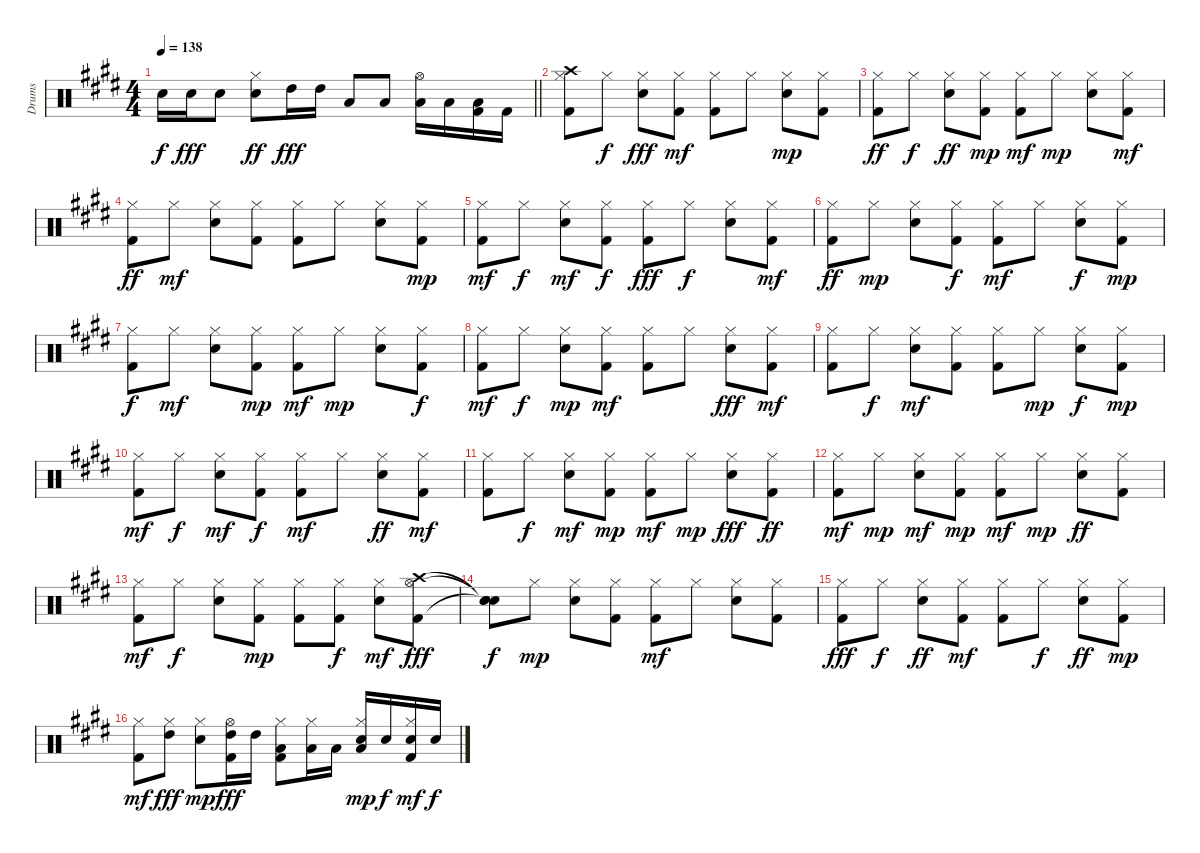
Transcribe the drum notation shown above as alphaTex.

\track ("Drums" "Drums") {instrument percussion}
\staff {score}
\articulation defaults
\ts (4 4)
\tempo 138
\clef neutral
\barLineRight lightlight
\ks e "Snare (hit) 2".16{dy f} "Snare (hit) 2".16{dy fff} "Snare (hit) 2".8
("Snare (hit) 2" "Hi-Hat (closed)").8{dy ff} "High Tom (hit)".16{dy fff} "High Tom (hit)".16 "Low Tom (hit)".8 "Low Tom (hit)".8 ("Low Floor Tom (hit)" "Hi-Hat (open)").16 "Low Tom (hit)".16 ("Kick (hit) 2" "Low Floor Tom (hit)").16 "Kick (hit) 2".16 |
("Kick (hit) 2" "Hi-Hat (closed)" "Crash high (hit)").8 "Hi-Hat (closed)".8{dy f} ("Snare (hit) 2" "Hi-Hat (closed)").8{dy fff} ("Kick (hit) 2" "Hi-Hat (closed)").8{dy mf} ("Kick (hit) 2" "Hi-Hat (closed)").8 "Hi-Hat (closed)".8 ("Snare (hit) 2" "Hi-Hat (closed)").8{dy mp} ("Kick (hit) 2" "Hi-Hat (closed)").8 |
("Kick (hit) 2" "Hi-Hat (closed)").8{dy ff} "Hi-Hat (closed)".8{dy f} ("Snare (hit) 2" "Hi-Hat (closed)").8{dy ff} ("Kick (hit) 2" "Hi-Hat (closed)").8{dy mp} ("Kick (hit) 2" "Hi-Hat (closed)").8{dy mf} "Hi-Hat (closed)".8{dy mp} ("Snare (hit) 2" "Hi-Hat (closed)").8 ("Kick (hit) 2" "Hi-Hat (closed)").8{dy mf} |
("Kick (hit) 2" "Hi-Hat (closed)").8{dy ff} "Hi-Hat (closed)".8{dy mf} ("Snare (hit) 2" "Hi-Hat (closed)").8 ("Kick (hit) 2" "Hi-Hat (closed)").8 ("Kick (hit) 2" "Hi-Hat (closed)").8 "Hi-Hat (closed)".8 ("Snare (hit) 2" "Hi-Hat (closed)").8 ("Kick (hit) 2" "Hi-Hat (closed)").8{dy mp} |
("Kick (hit) 2" "Hi-Hat (closed)").8{dy mf} "Hi-Hat (closed)".8{dy f} ("Snare (hit) 2" "Hi-Hat (closed)").8{dy mf} ("Kick (hit) 2" "Hi-Hat (closed)").8{dy f} ("Kick (hit) 2" "Hi-Hat (closed)").8{dy fff} "Hi-Hat (closed)".8{dy f} ("Snare (hit) 2" "Hi-Hat (closed)").8 ("Kick (hit) 2" "Hi-Hat (closed)").8{dy mf} |
("Kick (hit) 2" "Hi-Hat (closed)").8{dy ff} "Hi-Hat (closed)".8{dy mp} ("Snare (hit) 2" "Hi-Hat (closed)").8 ("Kick (hit) 2" "Hi-Hat (closed)").8{dy f} ("Kick (hit) 2" "Hi-Hat (closed)").8{dy mf} "Hi-Hat (closed)".8 ("Snare (hit) 2" "Hi-Hat (closed)").8{dy f} ("Kick (hit) 2" "Hi-Hat (closed)").8{dy mp} |
("Kick (hit) 2" "Hi-Hat (closed)").8{dy f} "Hi-Hat (closed)".8{dy mf} ("Snare (hit) 2" "Hi-Hat (closed)").8 ("Kick (hit) 2" "Hi-Hat (closed)").8{dy mp} ("Kick (hit) 2" "Hi-Hat (closed)").8{dy mf} "Hi-Hat (closed)".8{dy mp} ("Snare (hit) 2" "Hi-Hat (closed)").8 ("Kick (hit) 2" "Hi-Hat (closed)").8{dy f} |
("Kick (hit) 2" "Hi-Hat (closed)").8{dy mf} "Hi-Hat (closed)".8{dy f} ("Snare (hit) 2" "Hi-Hat (closed)").8{dy mp} ("Kick (hit) 2" "Hi-Hat (closed)").8{dy mf} ("Kick (hit) 2" "Hi-Hat (closed)").8 "Hi-Hat (closed)".8 ("Snare (hit) 2" "Hi-Hat (closed)").8{dy fff} ("Kick (hit) 2" "Hi-Hat (closed)").8{dy mf} |
("Kick (hit) 2" "Hi-Hat (closed)").8 "Hi-Hat (closed)".8{dy f} ("Snare (hit) 2" "Hi-Hat (closed)").8{dy mf} ("Kick (hit) 2" "Hi-Hat (closed)").8 ("Kick (hit) 2" "Hi-Hat (closed)").8 "Hi-Hat (closed)".8{dy mp} ("Snare (hit) 2" "Hi-Hat (closed)").8{dy f} ("Kick (hit) 2" "Hi-Hat (closed)").8{dy mp} |
("Kick (hit) 2" "Hi-Hat (closed)").8{dy mf} "Hi-Hat (closed)".8{dy f} ("Snare (hit) 2" "Hi-Hat (closed)").8{dy mf} ("Kick (hit) 2" "Hi-Hat (closed)").8{dy f} ("Kick (hit) 2" "Hi-Hat (closed)").8{dy mf} "Hi-Hat (closed)".8 ("Snare (hit) 2" "Hi-Hat (closed)").8{dy ff} ("Kick (hit) 2" "Hi-Hat (closed)").8{dy mf} |
("Kick (hit) 2" "Hi-Hat (closed)").8 "Hi-Hat (closed)".8{dy f} ("Snare (hit) 2" "Hi-Hat (closed)").8{dy mf} ("Kick (hit) 2" "Hi-Hat (closed)").8{dy mp} ("Kick (hit) 2" "Hi-Hat (closed)").8{dy mf} "Hi-Hat (closed)".8{dy mp} ("Snare (hit) 2" "Hi-Hat (closed)").8{dy fff} ("Kick (hit) 2" "Hi-Hat (closed)").8{dy ff} |
("Kick (hit) 2" "Hi-Hat (closed)").8{dy mf} "Hi-Hat (closed)".8{dy mp} ("Snare (hit) 2" "Hi-Hat (closed)").8{dy mf} ("Kick (hit) 2" "Hi-Hat (closed)").8{dy mp} ("Kick (hit) 2" "Hi-Hat (closed)").8{dy mf} "Hi-Hat (closed)".8{dy mp} ("Snare (hit) 2" "Hi-Hat (closed)").8{dy ff} ("Kick (hit) 2" "Hi-Hat (closed)").8 |
("Kick (hit) 2" "Hi-Hat (closed)").8{dy mf} "Hi-Hat (closed)".8{dy f} ("Snare (hit) 2" "Hi-Hat (closed)").8 ("Kick (hit) 2" "Hi-Hat (closed)").8{dy mp} ("Kick (hit) 2" "Hi-Hat (closed)").8 ("Kick (hit) 2" "Hi-Hat (closed)").8{dy f} ("Snare (hit) 2" "Hi-Hat (closed)").8{dy mf} ("Kick (hit) 2" "Hi-Hat (open)" "Crash high (hit)").8{dy fff} |
("Snare (hit)"{t} "Snare (hit)"{t} "Snare (hit)"{t}).8{dy f} "Hi-Hat (closed)".8{dy mp} ("Snare (hit) 2" "Hi-Hat (closed)").8 ("Kick (hit) 2" "Hi-Hat (closed)").8 ("Kick (hit) 2" "Hi-Hat (closed)").8{dy mf} "Hi-Hat (closed)".8 ("Snare (hit) 2" "Hi-Hat (closed)").8 ("Kick (hit) 2" "Hi-Hat (closed)").8 |
("Kick (hit) 2" "Hi-Hat (closed)").8{dy fff} "Hi-Hat (closed)".8{dy f} ("Snare (hit) 2" "Hi-Hat (closed)").8{dy ff} ("Kick (hit) 2" "Hi-Hat (closed)").8{dy mf} ("Kick (hit) 2" "Hi-Hat (closed)").8 "Hi-Hat (closed)".8{dy f} ("Snare (hit) 2" "Hi-Hat (closed)").8{dy ff} ("Kick (hit) 2" "Hi-Hat (closed)").8{dy mp} |
("Kick (hit) 2" "Hi-Hat (closed)").8{dy mf} ("Hi-Hat (closed)" "High Tom (hit)").8{dy fff} ("Snare (hit) 2" "Hi-Hat (closed)").8{dy mp} ("Kick (hit) 2" "Hi-Hat (open)" "High Tom (hit)").16{dy fff} "High Tom (hit)".16 ("Kick (hit) 2" "Hi-Hat (closed)" "Low Tom (hit)").8 ("Hi-Hat (closed)" "Low Tom (hit)").16 "Low Tom (hit)".16 ("Snare (hit) 2" "Low Floor Tom (hit)" "Hi-Hat (closed)").16{dy mp} "Snare (hit) 2".16{dy f} ("Kick (hit) 2" "Snare (hit) 2" "Hi-Hat (closed)").16{dy mf} "Snare (hit) 2".16{dy f}
